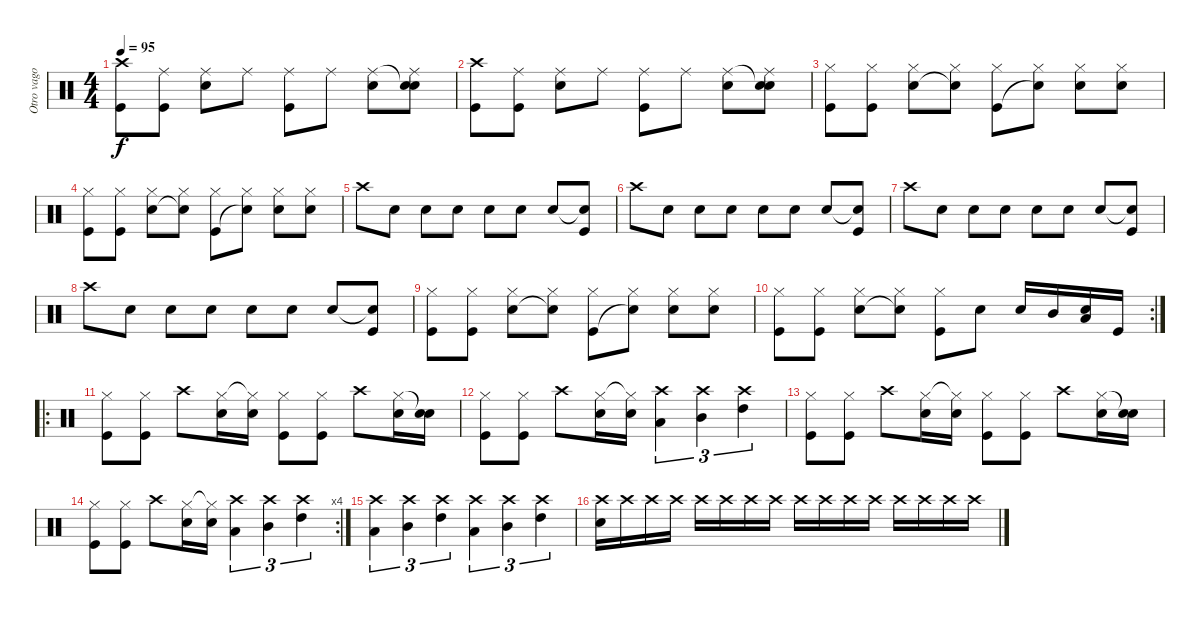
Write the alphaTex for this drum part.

\track ("Otro vago" "Otro vago") {instrument percussion}
\staff {score}
\articulation defaults
\ts (4 4)
\tempo 95
\clef neutral
\ks c
("Crash high (hit)" "Kick (hit)").8{dy f} ("Ride (middle)" "Kick (hit)").8 ("Ride (middle)" "Snare (hit) 2").8 "Ride (middle)".8 ("Ride (middle)" "Kick (hit)").8 "Ride (middle)".8 ("Ride (middle)" "Snare (hit) 2").8 ("Snare (hit)"{t} "Ride (middle)" "Snare (hit) 2").8 |
("Crash high (hit)" "Kick (hit)").8 ("Ride (middle)" "Kick (hit)").8 ("Ride (middle)" "Snare (hit) 2").8 "Ride (middle)".8 ("Ride (middle)" "Kick (hit)").8 "Ride (middle)".8 ("Ride (middle)" "Snare (hit) 2").8 ("Snare (hit)"{t} "Ride (middle)" "Snare (hit) 2").8 |
("Hi-Hat (closed)" "Kick (hit)").8 ("Hi-Hat (closed)" "Kick (hit)").8 ("Hi-Hat (closed)" "Snare (hit) 2").8 ("Hi-Hat (closed)" "Snare (hit)"{t}).8 ("Hi-Hat (closed)" "Kick (hit)").8 ("Hi-Hat (closed)" "Snare (hit)"{t}).8 ("Hi-Hat (closed)" "Snare (hit) 2").8 ("Hi-Hat (closed)" "Snare (hit) 2").8 |
("Hi-Hat (closed)" "Kick (hit)").8 ("Hi-Hat (closed)" "Kick (hit)").8 ("Hi-Hat (closed)" "Snare (hit) 2").8 ("Hi-Hat (closed)" "Snare (hit)"{t}).8 ("Hi-Hat (closed)" "Kick (hit)").8 ("Hi-Hat (closed)" "Snare (hit)"{t}).8 ("Hi-Hat (closed)" "Snare (hit) 2").8 ("Hi-Hat (closed)" "Snare (hit) 2").8 |
"Crash high (hit)".8 "Snare (hit) 2".8 "Snare (hit) 2".8 "Snare (hit) 2".8 "Snare (hit) 2".8 "Snare (hit) 2".8 "Snare (hit) 2".8 ("Snare (hit)"{t} "Kick (hit)").8 |
"Crash high (hit)".8 "Snare (hit) 2".8 "Snare (hit) 2".8 "Snare (hit) 2".8 "Snare (hit) 2".8 "Snare (hit) 2".8 "Snare (hit) 2".8 ("Snare (hit)"{t} "Kick (hit)").8 |
"Crash high (hit)".8 "Snare (hit) 2".8 "Snare (hit) 2".8 "Snare (hit) 2".8 "Snare (hit) 2".8 "Snare (hit) 2".8 "Snare (hit) 2".8 ("Snare (hit)"{t} "Kick (hit)").8 |
"Crash high (hit)".8 "Snare (hit) 2".8 "Snare (hit) 2".8 "Snare (hit) 2".8 "Snare (hit) 2".8 "Snare (hit) 2".8 "Snare (hit) 2".8 ("Snare (hit)"{t} "Kick (hit)").8 |
("Hi-Hat (closed)" "Kick (hit)").8 ("Hi-Hat (closed)" "Kick (hit)").8 ("Hi-Hat (closed)" "Snare (hit) 2").8 ("Hi-Hat (closed)" "Snare (hit)"{t}).8 ("Hi-Hat (closed)" "Kick (hit)").8 ("Hi-Hat (closed)" "Snare (hit)"{t}).8 ("Hi-Hat (closed)" "Snare (hit) 2").8 ("Hi-Hat (closed)" "Snare (hit) 2").8 |
\rc 2
("Hi-Hat (closed)" "Kick (hit)").8 ("Hi-Hat (closed)" "Kick (hit)").8 ("Hi-Hat (closed)" "Snare (hit) 2").8 ("Hi-Hat (closed)" "Snare (hit)"{t}).8 ("Hi-Hat (closed)" "Kick (hit)").8 "Snare (hit) 2".8 "Snare (hit) 2".16 "Mid Tom (hit)".16 ("Snare (hit) 2" "Low Tom (hit)").16 "Kick (hit)".16 |
\ro
("Hi-Hat (closed)" "Kick (hit)").8 ("Hi-Hat (closed)" "Kick (hit)").8 "Crash high (hit)".8 ("Hi-Hat (closed)" "Snare (hit) 2").16 ("Hi-Hat (closed)"{t} "Snare (hit) 2").16 ("Hi-Hat (closed)" "Kick (hit)").8 ("Hi-Hat (closed)" "Kick (hit)").8 "Crash high (hit)".8 ("Hi-Hat (closed)" "Snare (hit) 2").16 ("Snare (hit)"{t} "Snare (hit) 2").16 |
("Hi-Hat (closed)" "Kick (hit)").8 ("Hi-Hat (closed)" "Kick (hit)").8 "Crash high (hit)".8 ("Hi-Hat (closed)" "Snare (hit) 2").16 ("Hi-Hat (closed)"{t} "Snare (hit) 2").16 ("Crash high (hit)" "Low Tom (hit)").4{tu (3 2)} ("Crash high (hit)" "Mid Tom (hit)").4{tu (3 2)} ("Crash high (hit)" "High Tom (hit)").4{tu (3 2)} |
("Hi-Hat (closed)" "Kick (hit)").8 ("Hi-Hat (closed)" "Kick (hit)").8 "Crash high (hit)".8 ("Hi-Hat (closed)" "Snare (hit) 2").16 ("Hi-Hat (closed)"{t} "Snare (hit) 2").16 ("Hi-Hat (closed)" "Kick (hit)").8 ("Hi-Hat (closed)" "Kick (hit)").8 "Crash high (hit)".8 ("Hi-Hat (closed)" "Snare (hit) 2").16 ("Snare (hit)"{t} "Snare (hit) 2").16 |
\rc 4
("Hi-Hat (closed)" "Kick (hit)").8 ("Hi-Hat (closed)" "Kick (hit)").8 "Crash high (hit)".8 ("Hi-Hat (closed)" "Snare (hit) 2").16 ("Hi-Hat (closed)"{t} "Snare (hit) 2").16 ("Crash high (hit)" "Low Tom (hit)").4{tu (3 2)} ("Crash high (hit)" "Mid Tom (hit)").4{tu (3 2)} ("Crash high (hit)" "High Tom (hit)").4{tu (3 2)} |
("Crash high (hit)" "Low Tom (hit)").4{tu (3 2)} ("Crash high (hit)" "Mid Tom (hit)").4{tu (3 2)} ("Crash high (hit)" "High Tom (hit)").4{tu (3 2)} ("Crash high (hit)" "Low Tom (hit)").4{tu (3 2)} ("Crash high (hit)" "Mid Tom (hit)").4{tu (3 2)} ("Crash high (hit)" "High Tom (hit)").4{tu (3 2)} |
("Crash high (hit)" "Snare (hit) 2").16 "Crash high (hit)".16 "Crash high (hit)".16 "Crash high (hit)".16 "Crash high (hit)".16 "Crash high (hit)".16 "Crash high (hit)".16 "Crash high (hit)".16 "Crash high (hit)".16 "Crash high (hit)".16 "Crash high (hit)".16 "Crash high (hit)".16 "Crash high (hit)".16 "Crash high (hit)".16 "Crash high (hit)".16 "Crash high (hit)".16
